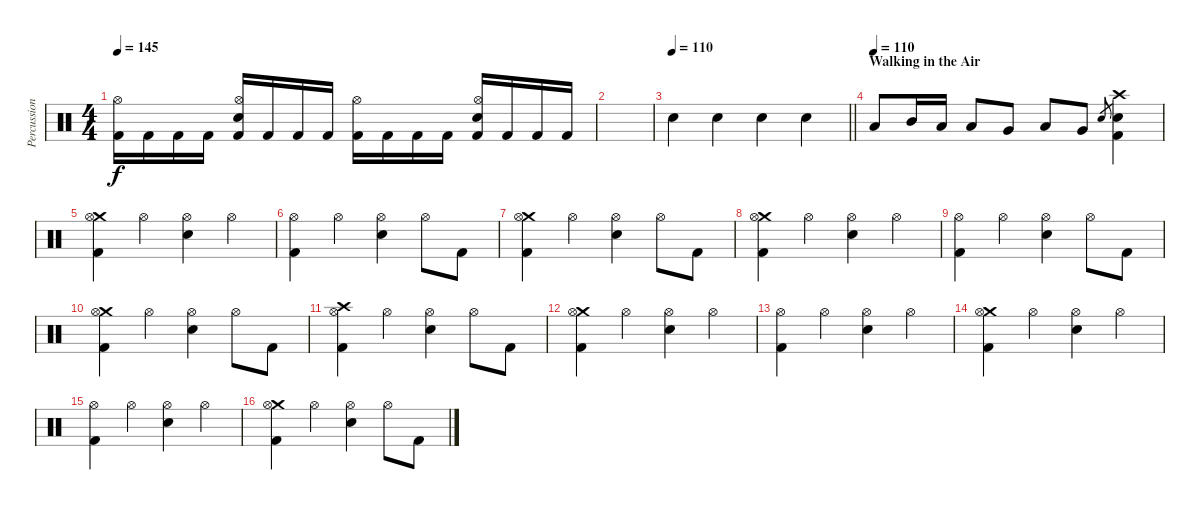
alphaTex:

\track ("Percussion" "Percussion") {instrument percussion}
\staff {score}
\articulation defaults
\ts (4 4)
\tempo 145
\clef neutral
\ks c
("Kick (hit) 2" "Hi-Hat (open)").16{dy f} "Kick (hit) 2".16 "Kick (hit) 2".16 "Kick (hit) 2".16 ("Kick (hit) 2" "Electric Snare (hit)" "Hi-Hat (open)").16 "Kick (hit) 2".16 "Kick (hit) 2".16 "Kick (hit) 2".16 ("Kick (hit) 2" "Hi-Hat (open)").16 "Kick (hit) 2".16 "Kick (hit) 2".16 "Kick (hit) 2".16 ("Kick (hit) 2" "Electric Snare (hit)" "Hi-Hat (open)").16 "Kick (hit) 2".16 "Kick (hit) 2".16 "Kick (hit) 2".16 |
|
\tempo 110
\barLineRight lightlight "Electric Snare (hit)".4 "Electric Snare (hit)".4 "Electric Snare (hit)".4 "Electric Snare (hit)".4
|
\section ("" "Walking in the Air")
\tempo (110)
"Low Tom (hit)".8 "Mid Tom (hit)".16 "Low Tom (hit)".16 "Low Tom (hit)".8 "Very Low Tom (hit)".8 "Low Floor Tom (hit)".8 "Very Low Tom (hit)".8 "Electric Snare (hit)".8{gr} ("Crash high (hit)" "Electric Snare (hit)" "Kick (hit) 2").4 |
("Crash medium (hit)" "Hi-Hat (open)" "Kick (hit) 2").4 "Hi-Hat (open)".4 ("Hi-Hat (open)" "Electric Snare (hit)").4 "Hi-Hat (open)".4 |
("Hi-Hat (open)" "Kick (hit) 2").4 "Hi-Hat (open)".4 ("Hi-Hat (open)" "Electric Snare (hit)").4 "Hi-Hat (open)".8 "Kick (hit) 2".8 |
("Crash medium (hit)" "Hi-Hat (open)" "Kick (hit) 2").4 "Hi-Hat (open)".4 ("Hi-Hat (open)" "Electric Snare (hit)").4 "Hi-Hat (open)".8 "Kick (hit) 2".8 |
("Crash medium (hit)" "Hi-Hat (open)" "Kick (hit) 2").4 "Hi-Hat (open)".4 ("Hi-Hat (open)" "Electric Snare (hit)").4 "Hi-Hat (open)".4 |
("Hi-Hat (open)" "Kick (hit) 2").4 "Hi-Hat (open)".4 ("Hi-Hat (open)" "Electric Snare (hit)").4 "Hi-Hat (open)".8 "Kick (hit) 2".8 |
("Crash medium (hit)" "Hi-Hat (open)" "Kick (hit) 2").4 "Hi-Hat (open)".4 ("Hi-Hat (open)" "Electric Snare (hit)").4 "Hi-Hat (open)".8 "Kick (hit) 2".8 |
("Crash high (hit)" "Hi-Hat (open)" "Kick (hit) 2").4 "Hi-Hat (open)".4 ("Hi-Hat (open)" "Electric Snare (hit)").4 "Hi-Hat (open)".8 "Kick (hit) 2".8 |
("Crash medium (hit)" "Hi-Hat (open)" "Kick (hit) 2").4 "Hi-Hat (open)".4 ("Hi-Hat (open)" "Electric Snare (hit)").4 "Hi-Hat (open)".4 |
("Hi-Hat (open)" "Kick (hit) 2").4 "Hi-Hat (open)".4 ("Hi-Hat (open)" "Electric Snare (hit)").4 "Hi-Hat (open)".4 |
("Crash medium (hit)" "Hi-Hat (open)" "Kick (hit) 2").4 "Hi-Hat (open)".4 ("Hi-Hat (open)" "Electric Snare (hit)").4 "Hi-Hat (open)".4 |
("Hi-Hat (open)" "Kick (hit) 2").4 "Hi-Hat (open)".4 ("Hi-Hat (open)" "Electric Snare (hit)").4 "Hi-Hat (open)".4 |
("Crash medium (hit)" "Hi-Hat (open)" "Kick (hit) 2").4 "Hi-Hat (open)".4 ("Hi-Hat (open)" "Electric Snare (hit)").4 "Hi-Hat (open)".8 "Kick (hit) 2".8
